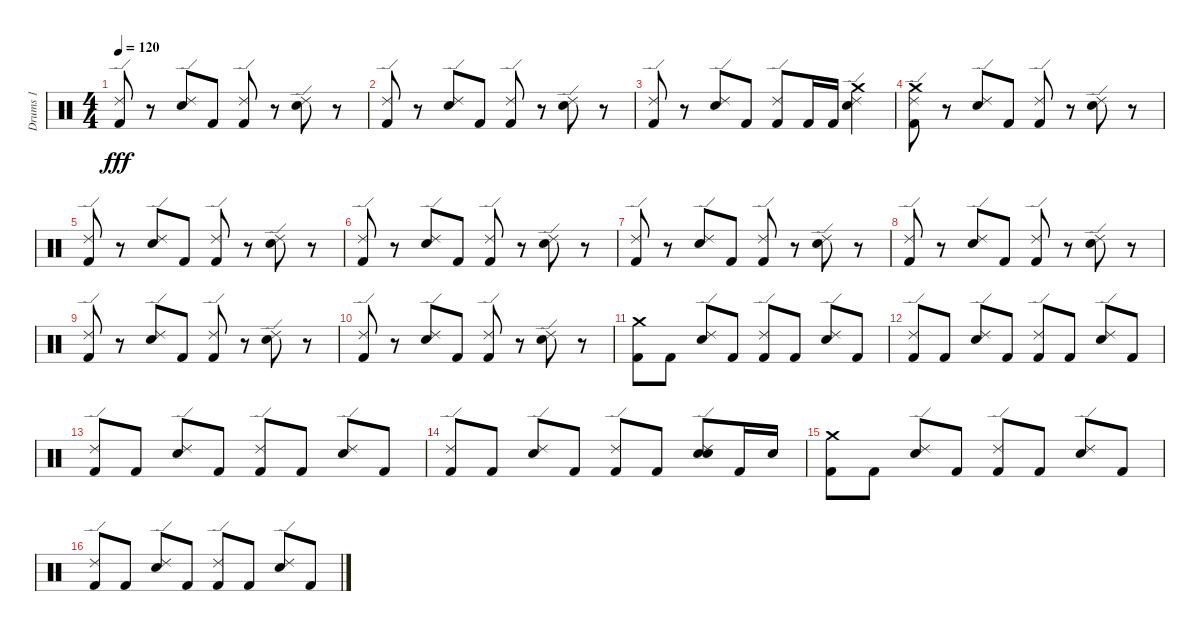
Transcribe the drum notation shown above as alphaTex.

\track ("Drums 1" "Drums 1") {instrument percussion}
\staff {score}
\articulation defaults
\ts (4 4)
\tempo 120
\clef neutral
\ks c
("Kick (hit) 2" "Ride (edge) 2").8{dy fff} r.8 ("Electric Snare (hit)" "Ride (edge) 2").8 "Kick (hit) 2".8 ("Kick (hit) 2" "Ride (edge) 2").8 r.8 ("Electric Snare (hit)" "Ride (edge) 2").8 r.8 |
("Kick (hit) 2" "Ride (edge) 2").8 r.8 ("Electric Snare (hit)" "Ride (edge) 2").8 "Kick (hit) 2".8 ("Kick (hit) 2" "Ride (edge) 2").8 r.8 ("Electric Snare (hit)" "Ride (edge) 2").8 r.8 |
("Kick (hit) 2" "Ride (edge) 2").8 r.8 ("Electric Snare (hit)" "Ride (edge) 2").8 "Kick (hit) 2".8 ("Kick (hit) 2" "Ride (edge) 2").8 "Kick (hit) 2".16 "Kick (hit) 2".16 ("Ride (edge) 2" "Electric Snare (hit)" "Crash medium (hit)").4 |
("Crash medium (hit)" "Kick (hit) 2" "Ride (edge) 2").8 r.8 ("Electric Snare (hit)" "Ride (edge) 2").8 "Kick (hit) 2".8 ("Kick (hit) 2" "Ride (edge) 2").8 r.8 ("Electric Snare (hit)" "Ride (edge) 2").8 r.8 |
("Kick (hit) 2" "Ride (edge) 2").8 r.8 ("Electric Snare (hit)" "Ride (edge) 2").8 "Kick (hit) 2".8 ("Kick (hit) 2" "Ride (edge) 2").8 r.8 ("Electric Snare (hit)" "Ride (edge) 2").8 r.8 |
("Kick (hit) 2" "Ride (edge) 2").8 r.8 ("Electric Snare (hit)" "Ride (edge) 2").8 "Kick (hit) 2".8 ("Kick (hit) 2" "Ride (edge) 2").8 r.8 ("Electric Snare (hit)" "Ride (edge) 2").8 r.8 |
("Kick (hit) 2" "Ride (edge) 2").8 r.8 ("Electric Snare (hit)" "Ride (edge) 2").8 "Kick (hit) 2".8 ("Kick (hit) 2" "Ride (edge) 2").8 r.8 ("Electric Snare (hit)" "Ride (edge) 2").8 r.8 |
("Kick (hit) 2" "Ride (edge) 2").8 r.8 ("Electric Snare (hit)" "Ride (edge) 2").8 "Kick (hit) 2".8 ("Kick (hit) 2" "Ride (edge) 2").8 r.8 ("Electric Snare (hit)" "Ride (edge) 2").8 r.8 |
("Kick (hit) 2" "Ride (edge) 2").8 r.8 ("Electric Snare (hit)" "Ride (edge) 2").8 "Kick (hit) 2".8 ("Kick (hit) 2" "Ride (edge) 2").8 r.8 ("Electric Snare (hit)" "Ride (edge) 2").8 r.8 |
("Kick (hit) 2" "Ride (edge) 2").8 r.8 ("Electric Snare (hit)" "Ride (edge) 2").8 "Kick (hit) 2".8 ("Kick (hit) 2" "Ride (edge) 2").8 r.8 ("Electric Snare (hit)" "Ride (edge) 2").8 r.8 |
("Crash medium (hit)" "Kick (hit) 2").8 "Kick (hit) 2".8 ("Ride (edge) 2" "Electric Snare (hit)").8 "Kick (hit) 2".8 ("Ride (edge) 2" "Kick (hit) 2").8 "Kick (hit) 2".8 ("Ride (edge) 2" "Electric Snare (hit)").8 "Kick (hit) 2".8 |
("Ride (edge) 2" "Kick (hit) 2").8 "Kick (hit) 2".8 ("Ride (edge) 2" "Electric Snare (hit)").8 "Kick (hit) 2".8 ("Ride (edge) 2" "Kick (hit) 2").8 "Kick (hit) 2".8 ("Ride (edge) 2" "Electric Snare (hit)").8 "Kick (hit) 2".8 |
("Ride (edge) 2" "Kick (hit) 2").8 "Kick (hit) 2".8 ("Ride (edge) 2" "Electric Snare (hit)").8 "Kick (hit) 2".8 ("Ride (edge) 2" "Kick (hit) 2").8 "Kick (hit) 2".8 ("Ride (edge) 2" "Electric Snare (hit)").8 "Kick (hit) 2".8 |
("Ride (edge) 2" "Kick (hit) 2").8 "Kick (hit) 2".8 ("Ride (edge) 2" "Electric Snare (hit)").8 "Kick (hit) 2".8 ("Ride (edge) 2" "Kick (hit) 2").8 "Kick (hit) 2".8 ("Ride (edge) 2" "Snare (hit) 2" "Electric Snare (hit)").8 "Kick (hit) 2".16 "Electric Snare (hit)".16 |
("Crash medium (hit)" "Kick (hit) 2").8 "Kick (hit) 2".8 ("Electric Snare (hit)" "Ride (edge) 2").8 "Kick (hit) 2".8 ("Kick (hit) 2" "Ride (edge) 2").8 "Kick (hit) 2".8 ("Electric Snare (hit)" "Ride (edge) 2").8 "Kick (hit) 2".8 |
("Kick (hit) 2" "Ride (edge) 2").8 "Kick (hit) 2".8 ("Electric Snare (hit)" "Ride (edge) 2").8 "Kick (hit) 2".8 ("Kick (hit) 2" "Ride (edge) 2").8 "Kick (hit) 2".8 ("Electric Snare (hit)" "Ride (edge) 2").8 "Kick (hit) 2".8
